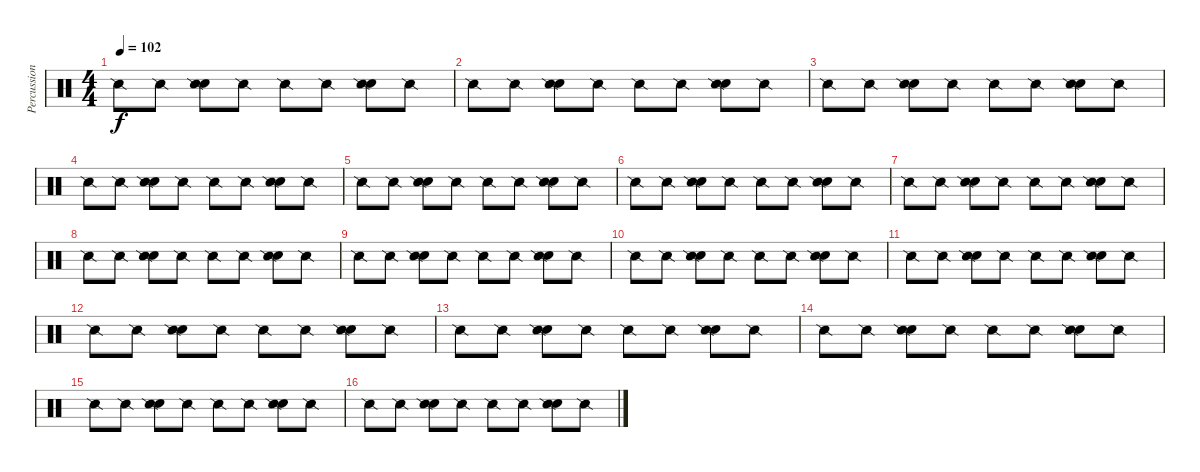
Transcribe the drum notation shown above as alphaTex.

\track ("Percussion" "Percussion") {instrument percussion}
\staff {score}
\articulation defaults
\ts (4 4)
\tempo 102
\clef neutral
\ks c "Snare (side stick) 2".8{dy f} "Snare (side stick) 2".8
("Electric Snare (hit)" "Snare (side stick) 2").8 "Snare (side stick) 2".8 "Snare (side stick) 2".8 "Snare (side stick) 2".8 ("Electric Snare (hit)" "Snare (side stick) 2").8 "Snare (side stick) 2".8 |
"Snare (side stick) 2".8 "Snare (side stick) 2".8 ("Electric Snare (hit)" "Snare (side stick) 2").8 "Snare (side stick) 2".8 "Snare (side stick) 2".8 "Snare (side stick) 2".8 ("Electric Snare (hit)" "Snare (side stick) 2").8 "Snare (side stick) 2".8 |
"Snare (side stick) 2".8 "Snare (side stick) 2".8 ("Electric Snare (hit)" "Snare (side stick) 2").8 "Snare (side stick) 2".8 "Snare (side stick) 2".8 "Snare (side stick) 2".8 ("Electric Snare (hit)" "Snare (side stick) 2").8 "Snare (side stick) 2".8 |
"Snare (side stick) 2".8 "Snare (side stick) 2".8 ("Electric Snare (hit)" "Snare (side stick) 2").8 "Snare (side stick) 2".8 "Snare (side stick) 2".8 "Snare (side stick) 2".8 ("Electric Snare (hit)" "Snare (side stick) 2").8 "Snare (side stick) 2".8 |
"Snare (side stick) 2".8 "Snare (side stick) 2".8 ("Electric Snare (hit)" "Snare (side stick) 2").8 "Snare (side stick) 2".8 "Snare (side stick) 2".8 "Snare (side stick) 2".8 ("Electric Snare (hit)" "Snare (side stick) 2").8 "Snare (side stick) 2".8 |
"Snare (side stick) 2".8 "Snare (side stick) 2".8 ("Electric Snare (hit)" "Snare (side stick) 2").8 "Snare (side stick) 2".8 "Snare (side stick) 2".8 "Snare (side stick) 2".8 ("Electric Snare (hit)" "Snare (side stick) 2").8 "Snare (side stick) 2".8 |
"Snare (side stick) 2".8 "Snare (side stick) 2".8 ("Electric Snare (hit)" "Snare (side stick) 2").8 "Snare (side stick) 2".8 "Snare (side stick) 2".8 "Snare (side stick) 2".8 ("Electric Snare (hit)" "Snare (side stick) 2").8 "Snare (side stick) 2".8 |
"Snare (side stick) 2".8 "Snare (side stick) 2".8 ("Electric Snare (hit)" "Snare (side stick) 2").8 "Snare (side stick) 2".8 "Snare (side stick) 2".8 "Snare (side stick) 2".8 ("Electric Snare (hit)" "Snare (side stick) 2").8 "Snare (side stick) 2".8 |
"Snare (side stick) 2".8 "Snare (side stick) 2".8 ("Electric Snare (hit)" "Snare (side stick) 2").8 "Snare (side stick) 2".8 "Snare (side stick) 2".8 "Snare (side stick) 2".8 ("Electric Snare (hit)" "Snare (side stick) 2").8 "Snare (side stick) 2".8 |
"Snare (side stick) 2".8 "Snare (side stick) 2".8 ("Electric Snare (hit)" "Snare (side stick) 2").8 "Snare (side stick) 2".8 "Snare (side stick) 2".8 "Snare (side stick) 2".8 ("Electric Snare (hit)" "Snare (side stick) 2").8 "Snare (side stick) 2".8 |
"Snare (side stick) 2".8 "Snare (side stick) 2".8 ("Electric Snare (hit)" "Snare (side stick) 2").8 "Snare (side stick) 2".8 "Snare (side stick) 2".8 "Snare (side stick) 2".8 ("Electric Snare (hit)" "Snare (side stick) 2").8 "Snare (side stick) 2".8 |
"Snare (side stick) 2".8 "Snare (side stick) 2".8 ("Electric Snare (hit)" "Snare (side stick) 2").8 "Snare (side stick) 2".8 "Snare (side stick) 2".8 "Snare (side stick) 2".8 ("Electric Snare (hit)" "Snare (side stick) 2").8 "Snare (side stick) 2".8 |
"Snare (side stick) 2".8 "Snare (side stick) 2".8 ("Electric Snare (hit)" "Snare (side stick) 2").8 "Snare (side stick) 2".8 "Snare (side stick) 2".8 "Snare (side stick) 2".8 ("Electric Snare (hit)" "Snare (side stick) 2").8 "Snare (side stick) 2".8 |
"Snare (side stick) 2".8 "Snare (side stick) 2".8 ("Electric Snare (hit)" "Snare (side stick) 2").8 "Snare (side stick) 2".8 "Snare (side stick) 2".8 "Snare (side stick) 2".8 ("Electric Snare (hit)" "Snare (side stick) 2").8 "Snare (side stick) 2".8 |
"Snare (side stick) 2".8 "Snare (side stick) 2".8 ("Electric Snare (hit)" "Snare (side stick) 2").8 "Snare (side stick) 2".8 "Snare (side stick) 2".8 "Snare (side stick) 2".8 ("Electric Snare (hit)" "Snare (side stick) 2").8 "Snare (side stick) 2".8 |
"Snare (side stick) 2".8 "Snare (side stick) 2".8 ("Electric Snare (hit)" "Snare (side stick) 2").8 "Snare (side stick) 2".8 "Snare (side stick) 2".8 "Snare (side stick) 2".8 ("Electric Snare (hit)" "Snare (side stick) 2").8 "Snare (side stick) 2".8
